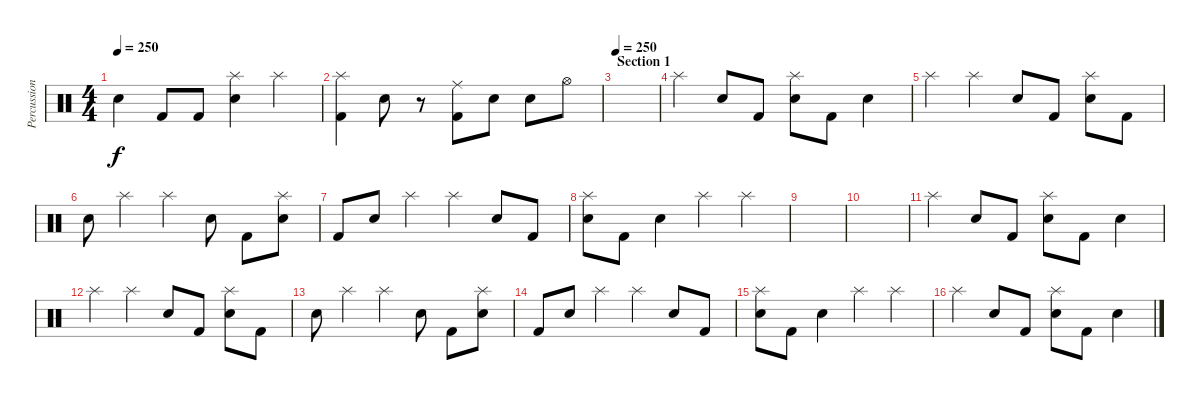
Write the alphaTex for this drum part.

\track ("Percussions2" "Percussion") {instrument percussion}
\staff {score}
\articulation defaults
\ts (4 4)
\tempo 250
\clef neutral
\ks c "Snare (hit) 2".4{dy f} "Kick (hit) 2".8 "Kick (hit) 2".8
("Snare (hit) 2" "Splash (hit)").4 "Splash (hit)".4 |
("Splash (hit)" "Kick (hit) 2").4 "Snare (hit) 2".8 r.8 ("Kick (hit) 2" "Ride (middle)").8 "Snare (hit) 2".8 "Snare (hit) 2".8 "Hi-Hat (open)".8 |
\section ("" "Section 1")
\tempo 250
|
"Splash (hit)".4 "Snare (hit) 2".8 "Kick (hit) 2".8 ("Snare (hit) 2" "Splash (hit)").8 "Kick (hit) 2".8 "Snare (hit) 2".4 |
"Splash (hit)".4 "Splash (hit)".4 "Snare (hit) 2".8 "Kick (hit) 2".8 ("Snare (hit) 2" "Splash (hit)").8 "Kick (hit) 2".8 |
"Snare (hit) 2".8 "Splash (hit)".4 "Splash (hit)".4 "Snare (hit) 2".8 "Kick (hit) 2".8 ("Snare (hit) 2" "Splash (hit)").8 |
"Kick (hit) 2".8 "Snare (hit) 2".8 "Splash (hit)".4 "Splash (hit)".4 "Snare (hit) 2".8 "Kick (hit) 2".8 |
("Snare (hit) 2" "Splash (hit)").8 "Kick (hit) 2".8 "Snare (hit) 2".4 "Splash (hit)".4 "Splash (hit)".4 |
|
|
"Splash (hit)".4 "Snare (hit) 2".8 "Kick (hit) 2".8 ("Snare (hit) 2" "Splash (hit)").8 "Kick (hit) 2".8 "Snare (hit) 2".4 |
"Splash (hit)".4 "Splash (hit)".4 "Snare (hit) 2".8 "Kick (hit) 2".8 ("Snare (hit) 2" "Splash (hit)").8 "Kick (hit) 2".8 |
"Snare (hit) 2".8 "Splash (hit)".4 "Splash (hit)".4 "Snare (hit) 2".8 "Kick (hit) 2".8 ("Snare (hit) 2" "Splash (hit)").8 |
"Kick (hit) 2".8 "Snare (hit) 2".8 "Splash (hit)".4 "Splash (hit)".4 "Snare (hit) 2".8 "Kick (hit) 2".8 |
("Snare (hit) 2" "Splash (hit)").8 "Kick (hit) 2".8 "Snare (hit) 2".4 "Splash (hit)".4 "Splash (hit)".4 |
"Splash (hit)".4 "Snare (hit) 2".8 "Kick (hit) 2".8 ("Snare (hit) 2" "Splash (hit)").8 "Kick (hit) 2".8 "Snare (hit) 2".4
